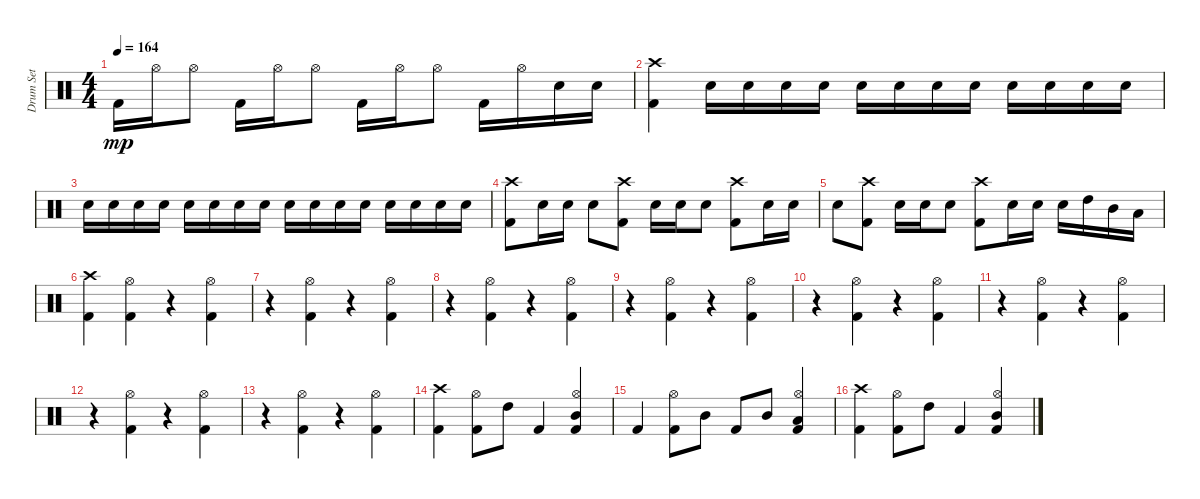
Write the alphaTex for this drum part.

\track ("Drum Set" "Drum Set") {instrument percussion}
\staff {score}
\articulation defaults
\ts (4 4)
\tempo 164
\clef neutral
\ks c "Kick (hit) 2".16{dy mp} "Hi-Hat (open)".16 "Hi-Hat (open)".8 "Kick (hit) 2".16 "Hi-Hat (open)".16 "Hi-Hat (open)".8 "Kick (hit) 2".16 "Hi-Hat (open)".16 "Hi-Hat (open)".8 "Kick (hit) 2".16 "Hi-Hat (open)".16 "Snare (hit) 2".16 "Snare (hit) 2".16
|
("Kick (hit) 2" "Crash high (hit)").4 "Snare (hit) 2".16 "Snare (hit) 2".16 "Snare (hit) 2".16 "Snare (hit) 2".16 "Snare (hit) 2".16 "Snare (hit) 2".16 "Snare (hit) 2".16 "Snare (hit) 2".16 "Snare (hit) 2".16 "Snare (hit) 2".16 "Snare (hit) 2".16 "Snare (hit) 2".16 |
"Snare (hit) 2".16 "Snare (hit) 2".16 "Snare (hit) 2".16 "Snare (hit) 2".16 "Snare (hit) 2".16 "Snare (hit) 2".16 "Snare (hit) 2".16 "Snare (hit) 2".16 "Snare (hit) 2".16 "Snare (hit) 2".16 "Snare (hit) 2".16 "Snare (hit) 2".16 "Snare (hit) 2".16 "Snare (hit) 2".16 "Snare (hit) 2".16 "Snare (hit) 2".16 |
("Kick (hit) 2" "Crash high (hit)").8 "Snare (hit) 2".16 "Snare (hit) 2".16 "Snare (hit) 2".8 ("Kick (hit) 2" "Crash high (hit)").8 "Snare (hit) 2".16 "Snare (hit) 2".16 "Snare (hit) 2".8 ("Kick (hit) 2" "Crash high (hit)").8 "Snare (hit) 2".16 "Snare (hit) 2".16 |
"Snare (hit) 2".8 ("Kick (hit) 2" "Crash high (hit)").8 "Snare (hit) 2".16 "Snare (hit) 2".16 "Snare (hit) 2".8 ("Kick (hit) 2" "Crash high (hit)").8 "Snare (hit) 2".16 "Snare (hit) 2".16 "Snare (hit) 2".16 "High Tom (hit)".16 "Mid Tom (hit)".16 "Low Tom (hit)".16 |
("Kick (hit) 2" "Crash high (hit)").4 ("Kick (hit) 2" "Hi-Hat (open)").4 r.4 ("Kick (hit) 2" "Hi-Hat (open)").4 |
r.4 ("Kick (hit) 2" "Hi-Hat (open)").4 r.4 ("Kick (hit) 2" "Hi-Hat (open)").4 |
r.4 ("Kick (hit) 2" "Hi-Hat (open)").4 r.4 ("Kick (hit) 2" "Hi-Hat (open)").4 |
r.4 ("Kick (hit) 2" "Hi-Hat (open)").4 r.4 ("Kick (hit) 2" "Hi-Hat (open)").4 |
r.4 ("Kick (hit) 2" "Hi-Hat (open)").4 r.4 ("Kick (hit) 2" "Hi-Hat (open)").4 |
r.4 ("Kick (hit) 2" "Hi-Hat (open)").4 r.4 ("Kick (hit) 2" "Hi-Hat (open)").4 |
r.4 ("Kick (hit) 2" "Hi-Hat (open)").4 r.4 ("Kick (hit) 2" "Hi-Hat (open)").4 |
r.4 ("Kick (hit) 2" "Hi-Hat (open)").4 r.4 ("Kick (hit) 2" "Hi-Hat (open)").4 |
("Kick (hit) 2" "Crash high (hit)").4 ("Kick (hit) 2" "Hi-Hat (open)").8 "High Tom (hit)".8 "Kick (hit) 2".4 ("Kick (hit) 2" "Mid Tom (hit)" "Hi-Hat (open)").4 |
"Kick (hit) 2".4 ("Kick (hit) 2" "Hi-Hat (open)").8 "Mid Tom (hit)".8 "Kick (hit) 2".8 "Mid Tom (hit)".8 ("Kick (hit) 2" "Low Tom (hit)" "Hi-Hat (open)").4 |
("Kick (hit) 2" "Crash high (hit)").4 ("Kick (hit) 2" "Hi-Hat (open)").8 "High Tom (hit)".8 "Kick (hit) 2".4 ("Kick (hit) 2" "Mid Tom (hit)" "Hi-Hat (open)").4
